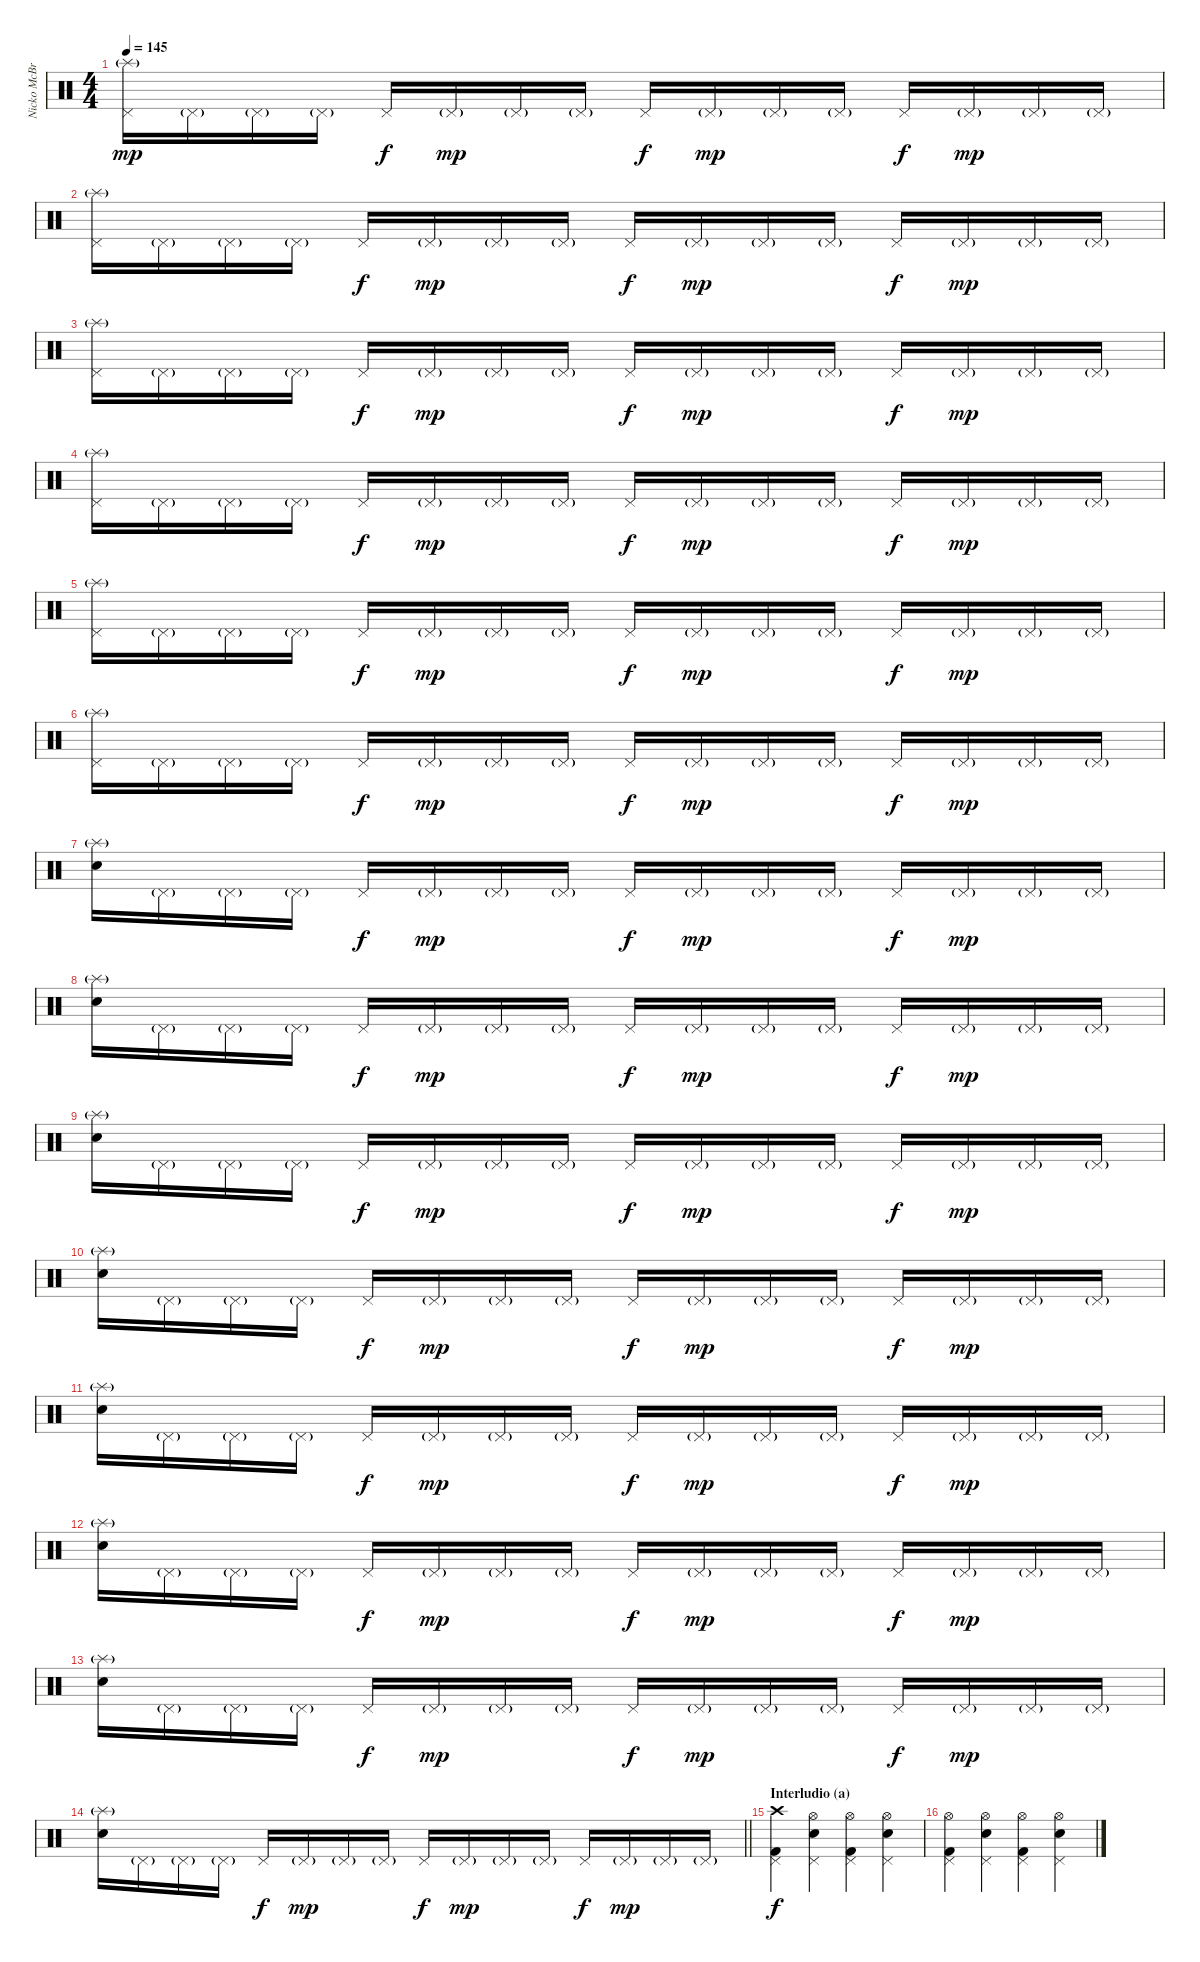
\track ("Nicko McBrain" "Nicko McBr") {instrument percussion}
\staff {score}
\articulation defaults
\ts (4 4)
\tempo 145
\clef neutral
\ks c
("Pedal Hi-Hat (hit)" "Splash (hit)"{g}).16{dy mp} "Pedal Hi-Hat (hit)"{g}.16 "Pedal Hi-Hat (hit)"{g}.16 "Pedal Hi-Hat (hit)"{g}.16 "Pedal Hi-Hat (hit)".16{dy f} "Pedal Hi-Hat (hit)"{g}.16{dy mp} "Pedal Hi-Hat (hit)"{g}.16 "Pedal Hi-Hat (hit)"{g}.16 "Pedal Hi-Hat (hit)".16{dy f} "Pedal Hi-Hat (hit)"{g}.16{dy mp} "Pedal Hi-Hat (hit)"{g}.16 "Pedal Hi-Hat (hit)"{g}.16 "Pedal Hi-Hat (hit)".16{dy f} "Pedal Hi-Hat (hit)"{g}.16{dy mp} "Pedal Hi-Hat (hit)"{g}.16 "Pedal Hi-Hat (hit)"{g}.16 |
("Pedal Hi-Hat (hit)" "Splash (hit)"{g}).16 "Pedal Hi-Hat (hit)"{g}.16 "Pedal Hi-Hat (hit)"{g}.16 "Pedal Hi-Hat (hit)"{g}.16 "Pedal Hi-Hat (hit)".16{dy f} "Pedal Hi-Hat (hit)"{g}.16{dy mp} "Pedal Hi-Hat (hit)"{g}.16 "Pedal Hi-Hat (hit)"{g}.16 "Pedal Hi-Hat (hit)".16{dy f} "Pedal Hi-Hat (hit)"{g}.16{dy mp} "Pedal Hi-Hat (hit)"{g}.16 "Pedal Hi-Hat (hit)"{g}.16 "Pedal Hi-Hat (hit)".16{dy f} "Pedal Hi-Hat (hit)"{g}.16{dy mp} "Pedal Hi-Hat (hit)"{g}.16 "Pedal Hi-Hat (hit)"{g}.16 |
("Pedal Hi-Hat (hit)" "Splash (hit)"{g}).16 "Pedal Hi-Hat (hit)"{g}.16 "Pedal Hi-Hat (hit)"{g}.16 "Pedal Hi-Hat (hit)"{g}.16 "Pedal Hi-Hat (hit)".16{dy f} "Pedal Hi-Hat (hit)"{g}.16{dy mp} "Pedal Hi-Hat (hit)"{g}.16 "Pedal Hi-Hat (hit)"{g}.16 "Pedal Hi-Hat (hit)".16{dy f} "Pedal Hi-Hat (hit)"{g}.16{dy mp} "Pedal Hi-Hat (hit)"{g}.16 "Pedal Hi-Hat (hit)"{g}.16 "Pedal Hi-Hat (hit)".16{dy f} "Pedal Hi-Hat (hit)"{g}.16{dy mp} "Pedal Hi-Hat (hit)"{g}.16 "Pedal Hi-Hat (hit)"{g}.16 |
("Pedal Hi-Hat (hit)" "Splash (hit)"{g}).16 "Pedal Hi-Hat (hit)"{g}.16 "Pedal Hi-Hat (hit)"{g}.16 "Pedal Hi-Hat (hit)"{g}.16 "Pedal Hi-Hat (hit)".16{dy f} "Pedal Hi-Hat (hit)"{g}.16{dy mp} "Pedal Hi-Hat (hit)"{g}.16 "Pedal Hi-Hat (hit)"{g}.16 "Pedal Hi-Hat (hit)".16{dy f} "Pedal Hi-Hat (hit)"{g}.16{dy mp} "Pedal Hi-Hat (hit)"{g}.16 "Pedal Hi-Hat (hit)"{g}.16 "Pedal Hi-Hat (hit)".16{dy f} "Pedal Hi-Hat (hit)"{g}.16{dy mp} "Pedal Hi-Hat (hit)"{g}.16 "Pedal Hi-Hat (hit)"{g}.16 |
("Pedal Hi-Hat (hit)" "Splash (hit)"{g}).16 "Pedal Hi-Hat (hit)"{g}.16 "Pedal Hi-Hat (hit)"{g}.16 "Pedal Hi-Hat (hit)"{g}.16 "Pedal Hi-Hat (hit)".16{dy f} "Pedal Hi-Hat (hit)"{g}.16{dy mp} "Pedal Hi-Hat (hit)"{g}.16 "Pedal Hi-Hat (hit)"{g}.16 "Pedal Hi-Hat (hit)".16{dy f} "Pedal Hi-Hat (hit)"{g}.16{dy mp} "Pedal Hi-Hat (hit)"{g}.16 "Pedal Hi-Hat (hit)"{g}.16 "Pedal Hi-Hat (hit)".16{dy f} "Pedal Hi-Hat (hit)"{g}.16{dy mp} "Pedal Hi-Hat (hit)"{g}.16 "Pedal Hi-Hat (hit)"{g}.16 |
("Pedal Hi-Hat (hit)" "Splash (hit)"{g}).16 "Pedal Hi-Hat (hit)"{g}.16 "Pedal Hi-Hat (hit)"{g}.16 "Pedal Hi-Hat (hit)"{g}.16 "Pedal Hi-Hat (hit)".16{dy f} "Pedal Hi-Hat (hit)"{g}.16{dy mp} "Pedal Hi-Hat (hit)"{g}.16 "Pedal Hi-Hat (hit)"{g}.16 "Pedal Hi-Hat (hit)".16{dy f} "Pedal Hi-Hat (hit)"{g}.16{dy mp} "Pedal Hi-Hat (hit)"{g}.16 "Pedal Hi-Hat (hit)"{g}.16 "Pedal Hi-Hat (hit)".16{dy f} "Pedal Hi-Hat (hit)"{g}.16{dy mp} "Pedal Hi-Hat (hit)"{g}.16 "Pedal Hi-Hat (hit)"{g}.16 |
("Snare (hit) 2" "Splash (hit)"{g}).16 "Pedal Hi-Hat (hit)"{g}.16 "Pedal Hi-Hat (hit)"{g}.16 "Pedal Hi-Hat (hit)"{g}.16 "Pedal Hi-Hat (hit)".16{dy f} "Pedal Hi-Hat (hit)"{g}.16{dy mp} "Pedal Hi-Hat (hit)"{g}.16 "Pedal Hi-Hat (hit)"{g}.16 "Pedal Hi-Hat (hit)".16{dy f} "Pedal Hi-Hat (hit)"{g}.16{dy mp} "Pedal Hi-Hat (hit)"{g}.16 "Pedal Hi-Hat (hit)"{g}.16 "Pedal Hi-Hat (hit)".16{dy f} "Pedal Hi-Hat (hit)"{g}.16{dy mp} "Pedal Hi-Hat (hit)"{g}.16 "Pedal Hi-Hat (hit)"{g}.16 |
("Snare (hit) 2" "Splash (hit)"{g}).16 "Pedal Hi-Hat (hit)"{g}.16 "Pedal Hi-Hat (hit)"{g}.16 "Pedal Hi-Hat (hit)"{g}.16 "Pedal Hi-Hat (hit)".16{dy f} "Pedal Hi-Hat (hit)"{g}.16{dy mp} "Pedal Hi-Hat (hit)"{g}.16 "Pedal Hi-Hat (hit)"{g}.16 "Pedal Hi-Hat (hit)".16{dy f} "Pedal Hi-Hat (hit)"{g}.16{dy mp} "Pedal Hi-Hat (hit)"{g}.16 "Pedal Hi-Hat (hit)"{g}.16 "Pedal Hi-Hat (hit)".16{dy f} "Pedal Hi-Hat (hit)"{g}.16{dy mp} "Pedal Hi-Hat (hit)"{g}.16 "Pedal Hi-Hat (hit)"{g}.16 |
("Snare (hit) 2" "Splash (hit)"{g}).16 "Pedal Hi-Hat (hit)"{g}.16 "Pedal Hi-Hat (hit)"{g}.16 "Pedal Hi-Hat (hit)"{g}.16 "Pedal Hi-Hat (hit)".16{dy f} "Pedal Hi-Hat (hit)"{g}.16{dy mp} "Pedal Hi-Hat (hit)"{g}.16 "Pedal Hi-Hat (hit)"{g}.16 "Pedal Hi-Hat (hit)".16{dy f} "Pedal Hi-Hat (hit)"{g}.16{dy mp} "Pedal Hi-Hat (hit)"{g}.16 "Pedal Hi-Hat (hit)"{g}.16 "Pedal Hi-Hat (hit)".16{dy f} "Pedal Hi-Hat (hit)"{g}.16{dy mp} "Pedal Hi-Hat (hit)"{g}.16 "Pedal Hi-Hat (hit)"{g}.16 |
("Snare (hit) 2" "Splash (hit)"{g}).16 "Pedal Hi-Hat (hit)"{g}.16 "Pedal Hi-Hat (hit)"{g}.16 "Pedal Hi-Hat (hit)"{g}.16 "Pedal Hi-Hat (hit)".16{dy f} "Pedal Hi-Hat (hit)"{g}.16{dy mp} "Pedal Hi-Hat (hit)"{g}.16 "Pedal Hi-Hat (hit)"{g}.16 "Pedal Hi-Hat (hit)".16{dy f} "Pedal Hi-Hat (hit)"{g}.16{dy mp} "Pedal Hi-Hat (hit)"{g}.16 "Pedal Hi-Hat (hit)"{g}.16 "Pedal Hi-Hat (hit)".16{dy f} "Pedal Hi-Hat (hit)"{g}.16{dy mp} "Pedal Hi-Hat (hit)"{g}.16 "Pedal Hi-Hat (hit)"{g}.16 |
("Snare (hit) 2" "Splash (hit)"{g}).16 "Pedal Hi-Hat (hit)"{g}.16 "Pedal Hi-Hat (hit)"{g}.16 "Pedal Hi-Hat (hit)"{g}.16 "Pedal Hi-Hat (hit)".16{dy f} "Pedal Hi-Hat (hit)"{g}.16{dy mp} "Pedal Hi-Hat (hit)"{g}.16 "Pedal Hi-Hat (hit)"{g}.16 "Pedal Hi-Hat (hit)".16{dy f} "Pedal Hi-Hat (hit)"{g}.16{dy mp} "Pedal Hi-Hat (hit)"{g}.16 "Pedal Hi-Hat (hit)"{g}.16 "Pedal Hi-Hat (hit)".16{dy f} "Pedal Hi-Hat (hit)"{g}.16{dy mp} "Pedal Hi-Hat (hit)"{g}.16 "Pedal Hi-Hat (hit)"{g}.16 |
("Snare (hit) 2" "Splash (hit)"{g}).16 "Pedal Hi-Hat (hit)"{g}.16 "Pedal Hi-Hat (hit)"{g}.16 "Pedal Hi-Hat (hit)"{g}.16 "Pedal Hi-Hat (hit)".16{dy f} "Pedal Hi-Hat (hit)"{g}.16{dy mp} "Pedal Hi-Hat (hit)"{g}.16 "Pedal Hi-Hat (hit)"{g}.16 "Pedal Hi-Hat (hit)".16{dy f} "Pedal Hi-Hat (hit)"{g}.16{dy mp} "Pedal Hi-Hat (hit)"{g}.16 "Pedal Hi-Hat (hit)"{g}.16 "Pedal Hi-Hat (hit)".16{dy f} "Pedal Hi-Hat (hit)"{g}.16{dy mp} "Pedal Hi-Hat (hit)"{g}.16 "Pedal Hi-Hat (hit)"{g}.16 |
("Snare (hit) 2" "Splash (hit)"{g}).16 "Pedal Hi-Hat (hit)"{g}.16 "Pedal Hi-Hat (hit)"{g}.16 "Pedal Hi-Hat (hit)"{g}.16 "Pedal Hi-Hat (hit)".16{dy f} "Pedal Hi-Hat (hit)"{g}.16{dy mp} "Pedal Hi-Hat (hit)"{g}.16 "Pedal Hi-Hat (hit)"{g}.16 "Pedal Hi-Hat (hit)".16{dy f} "Pedal Hi-Hat (hit)"{g}.16{dy mp} "Pedal Hi-Hat (hit)"{g}.16 "Pedal Hi-Hat (hit)"{g}.16 "Pedal Hi-Hat (hit)".16{dy f} "Pedal Hi-Hat (hit)"{g}.16{dy mp} "Pedal Hi-Hat (hit)"{g}.16 "Pedal Hi-Hat (hit)"{g}.16 |
\barLineRight lightlight
("Snare (hit) 2" "Splash (hit)"{g}).16 "Pedal Hi-Hat (hit)"{g}.16 "Pedal Hi-Hat (hit)"{g}.16 "Pedal Hi-Hat (hit)"{g}.16 "Pedal Hi-Hat (hit)".16{dy f} "Pedal Hi-Hat (hit)"{g}.16{dy mp} "Pedal Hi-Hat (hit)"{g}.16 "Pedal Hi-Hat (hit)"{g}.16 "Pedal Hi-Hat (hit)".16{dy f} "Pedal Hi-Hat (hit)"{g}.16{dy mp} "Pedal Hi-Hat (hit)"{g}.16 "Pedal Hi-Hat (hit)"{g}.16 "Pedal Hi-Hat (hit)".16{dy f} "Pedal Hi-Hat (hit)"{g}.16{dy mp} "Pedal Hi-Hat (hit)"{g}.16 "Pedal Hi-Hat (hit)"{g}.16 |
\section ("" "Interludio (a)")
("Kick (hit) 2" "Pedal Hi-Hat (hit)" "Crash high (hit)").4{dy f} ("Snare (hit) 2" "Pedal Hi-Hat (hit)" "Hi-Hat (open)").4 ("Kick (hit) 2" "Pedal Hi-Hat (hit)" "Hi-Hat (open)").4 ("Snare (hit) 2" "Pedal Hi-Hat (hit)" "Hi-Hat (open)").4 |
("Kick (hit) 2" "Pedal Hi-Hat (hit)" "Hi-Hat (open)").4 ("Snare (hit) 2" "Pedal Hi-Hat (hit)" "Hi-Hat (open)").4 ("Kick (hit) 2" "Pedal Hi-Hat (hit)" "Hi-Hat (open)").4 ("Snare (hit) 2" "Pedal Hi-Hat (hit)" "Hi-Hat (open)").4
